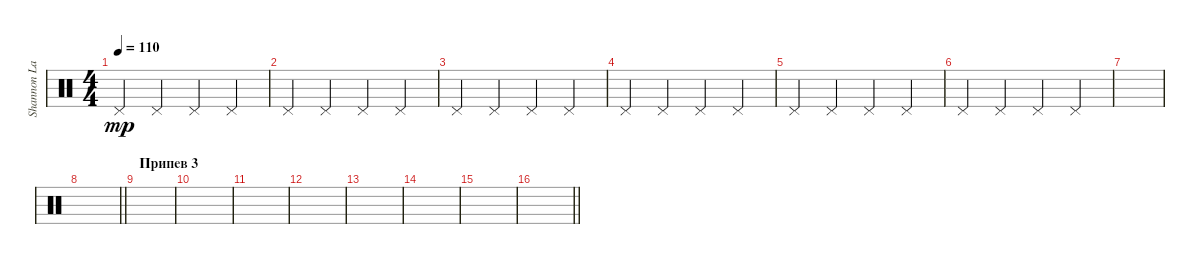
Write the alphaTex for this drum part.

\track ("Shannon Larkin [Percussion 4]" "Shannon La") {instrument percussion}
\staff {score}
\articulation defaults
\ts (4 4)
\tempo 110
\clef neutral
\ks c "Pedal Hi-Hat (hit)".4{dy mp} "Pedal Hi-Hat (hit)".4 "Pedal Hi-Hat (hit)".4 "Pedal Hi-Hat (hit)".4
|
"Pedal Hi-Hat (hit)".4 "Pedal Hi-Hat (hit)".4 "Pedal Hi-Hat (hit)".4 "Pedal Hi-Hat (hit)".4 |
"Pedal Hi-Hat (hit)".4 "Pedal Hi-Hat (hit)".4 "Pedal Hi-Hat (hit)".4 "Pedal Hi-Hat (hit)".4 |
"Pedal Hi-Hat (hit)".4 "Pedal Hi-Hat (hit)".4 "Pedal Hi-Hat (hit)".4 "Pedal Hi-Hat (hit)".4 |
"Pedal Hi-Hat (hit)".4 "Pedal Hi-Hat (hit)".4 "Pedal Hi-Hat (hit)".4 "Pedal Hi-Hat (hit)".4 |
"Pedal Hi-Hat (hit)".4 "Pedal Hi-Hat (hit)".4 "Pedal Hi-Hat (hit)".4 "Pedal Hi-Hat (hit)".4 |
|
\barLineRight lightlight
|
\section ("" "Припев 3")
|
|
|
|
|
|
|
\barLineRight lightlight
